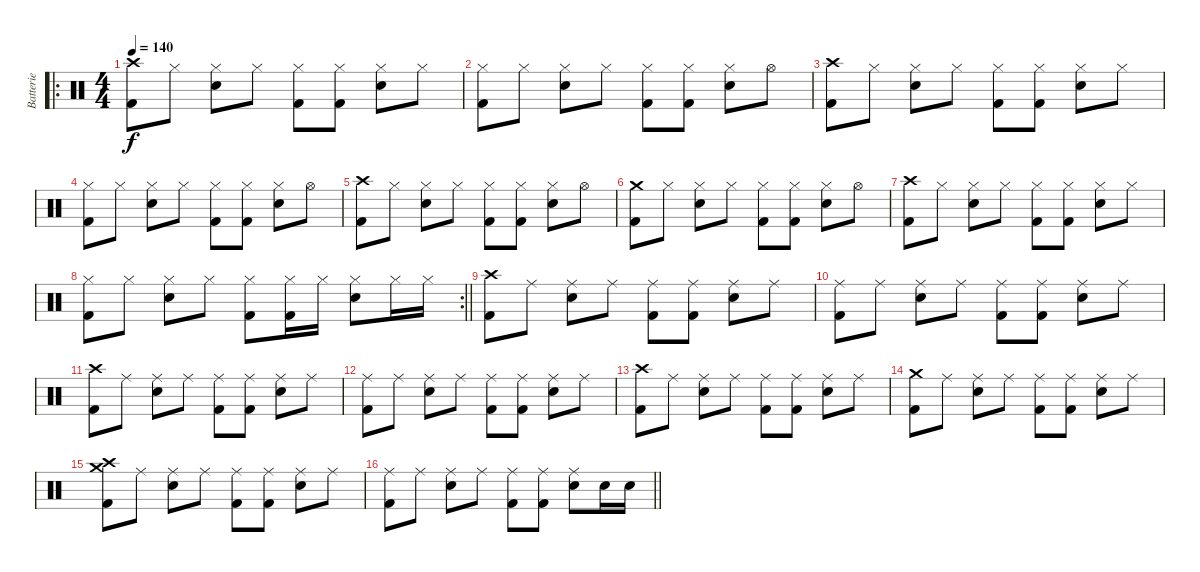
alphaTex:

\track ("Batterie" "Batterie") {instrument percussion}
\staff {score}
\articulation defaults
\ro
\ts (4 4)
\tempo 140
\clef neutral
\ks c
("Crash high (hit)" "Kick (hit) 2").8{dy f} "Hi-Hat (closed)".8 ("Hi-Hat (closed)" "Snare (hit) 2").8 "Hi-Hat (closed)".8 ("Hi-Hat (closed)" "Kick (hit) 2").8 ("Hi-Hat (closed)" "Kick (hit) 2").8 ("Hi-Hat (closed)" "Snare (hit) 2").8 "Hi-Hat (closed)".8 |
("Hi-Hat (closed)" "Kick (hit) 2").8 "Hi-Hat (closed)".8 ("Hi-Hat (closed)" "Snare (hit) 2").8 "Hi-Hat (closed)".8 ("Hi-Hat (closed)" "Kick (hit) 2").8 ("Hi-Hat (closed)" "Kick (hit) 2").8 ("Hi-Hat (closed)" "Snare (hit) 2").8 "Hi-Hat (open)".8 |
("Crash high (hit)" "Kick (hit) 2").8 "Hi-Hat (closed)".8 ("Hi-Hat (closed)" "Snare (hit) 2").8 "Hi-Hat (closed)".8 ("Hi-Hat (closed)" "Kick (hit) 2").8 ("Hi-Hat (closed)" "Kick (hit) 2").8 ("Hi-Hat (closed)" "Snare (hit) 2").8 "Hi-Hat (closed)".8 |
("Hi-Hat (closed)" "Kick (hit) 2").8 "Hi-Hat (closed)".8 ("Hi-Hat (closed)" "Snare (hit) 2").8 "Hi-Hat (closed)".8 ("Hi-Hat (closed)" "Kick (hit) 2").8 ("Hi-Hat (closed)" "Kick (hit) 2").8 ("Hi-Hat (closed)" "Snare (hit) 2").8 "Hi-Hat (open)".8 |
("Crash high (hit)" "Kick (hit) 2").8 "Hi-Hat (closed)".8 ("Hi-Hat (closed)" "Snare (hit) 2").8 "Hi-Hat (closed)".8 ("Hi-Hat (closed)" "Kick (hit) 2").8 ("Hi-Hat (closed)" "Kick (hit) 2").8 ("Hi-Hat (closed)" "Snare (hit) 2").8 "Hi-Hat (open)".8 |
("Crash medium (hit)" "Kick (hit) 2").8 "Hi-Hat (closed)".8 ("Hi-Hat (closed)" "Snare (hit) 2").8 "Hi-Hat (closed)".8 ("Hi-Hat (closed)" "Kick (hit) 2").8 ("Hi-Hat (closed)" "Kick (hit) 2").8 ("Hi-Hat (closed)" "Snare (hit) 2").8 "Hi-Hat (open)".8 |
("Crash high (hit)" "Kick (hit) 2").8 "Hi-Hat (closed)".8 ("Hi-Hat (closed)" "Snare (hit) 2").8 "Hi-Hat (closed)".8 ("Hi-Hat (closed)" "Kick (hit) 2").8 ("Hi-Hat (closed)" "Kick (hit) 2").8 ("Hi-Hat (closed)" "Snare (hit) 2").8 "Hi-Hat (closed)".8 |
\rc 2
\barLineRight lightlight
("Hi-Hat (closed)" "Kick (hit) 2").8 "Hi-Hat (closed)".8 ("Hi-Hat (closed)" "Snare (hit) 2").8 "Hi-Hat (closed)".8 ("Hi-Hat (closed)" "Kick (hit) 2").8 ("Hi-Hat (closed)" "Kick (hit) 2").16 "Hi-Hat (closed)".16 ("Hi-Hat (closed)" "Snare (hit) 2").8 "Hi-Hat (closed)".16 "Hi-Hat (closed)".16 |
("Crash high (hit)" "Kick (hit) 2").8 "Ride (middle)".8 ("Ride (middle)" "Snare (hit) 2").8 "Ride (middle)".8 ("Ride (middle)" "Kick (hit) 2").8 ("Ride (middle)" "Kick (hit) 2").8 ("Ride (middle)" "Snare (hit) 2").8 "Ride (middle)".8 |
("Ride (middle)" "Kick (hit) 2").8 "Ride (middle)".8 ("Ride (middle)" "Snare (hit) 2").8 "Ride (middle)".8 ("Ride (middle)" "Kick (hit) 2").8 ("Ride (middle)" "Kick (hit) 2").8 ("Ride (middle)" "Snare (hit) 2").8 "Ride (middle)".8 |
("Crash high (hit)" "Kick (hit) 2").8 "Ride (middle)".8 ("Ride (middle)" "Snare (hit) 2").8 "Ride (middle)".8 ("Ride (middle)" "Kick (hit) 2").8 ("Ride (middle)" "Kick (hit) 2").8 ("Ride (middle)" "Snare (hit) 2").8 "Ride (middle)".8 |
("Ride (middle)" "Kick (hit) 2").8 "Ride (middle)".8 ("Ride (middle)" "Snare (hit) 2").8 "Ride (middle)".8 ("Ride (middle)" "Kick (hit) 2").8 ("Ride (middle)" "Kick (hit) 2").8 ("Ride (middle)" "Snare (hit) 2").8 "Ride (middle)".8 |
("Crash high (hit)" "Kick (hit) 2").8 "Ride (middle)".8 ("Ride (middle)" "Snare (hit) 2").8 "Ride (middle)".8 ("Ride (middle)" "Kick (hit) 2").8 ("Ride (middle)" "Kick (hit) 2").8 ("Ride (middle)" "Snare (hit) 2").8 "Ride (middle)".8 |
("Crash medium (hit)" "Kick (hit) 2").8 "Ride (middle)".8 ("Ride (middle)" "Snare (hit) 2").8 "Ride (middle)".8 ("Ride (middle)" "Kick (hit) 2").8 ("Ride (middle)" "Kick (hit) 2").8 ("Ride (middle)" "Snare (hit) 2").8 "Ride (middle)".8 |
("Crash high (hit)" "Crash medium (hit)" "Kick (hit) 2").8 "Ride (middle)".8 ("Ride (middle)" "Snare (hit) 2").8 "Ride (middle)".8 ("Ride (middle)" "Kick (hit) 2").8 ("Ride (middle)" "Kick (hit) 2").8 ("Ride (middle)" "Snare (hit) 2").8 "Ride (middle)".8 |
\barLineRight lightlight
("Ride (middle)" "Kick (hit) 2").8 "Ride (middle)".8 ("Ride (middle)" "Snare (hit) 2").8 "Ride (middle)".8 ("Ride (middle)" "Kick (hit) 2").8 ("Ride (middle)" "Kick (hit) 2").8 ("Ride (middle)" "Snare (hit) 2").8 "Snare (hit) 2".16 "Snare (hit) 2".16
